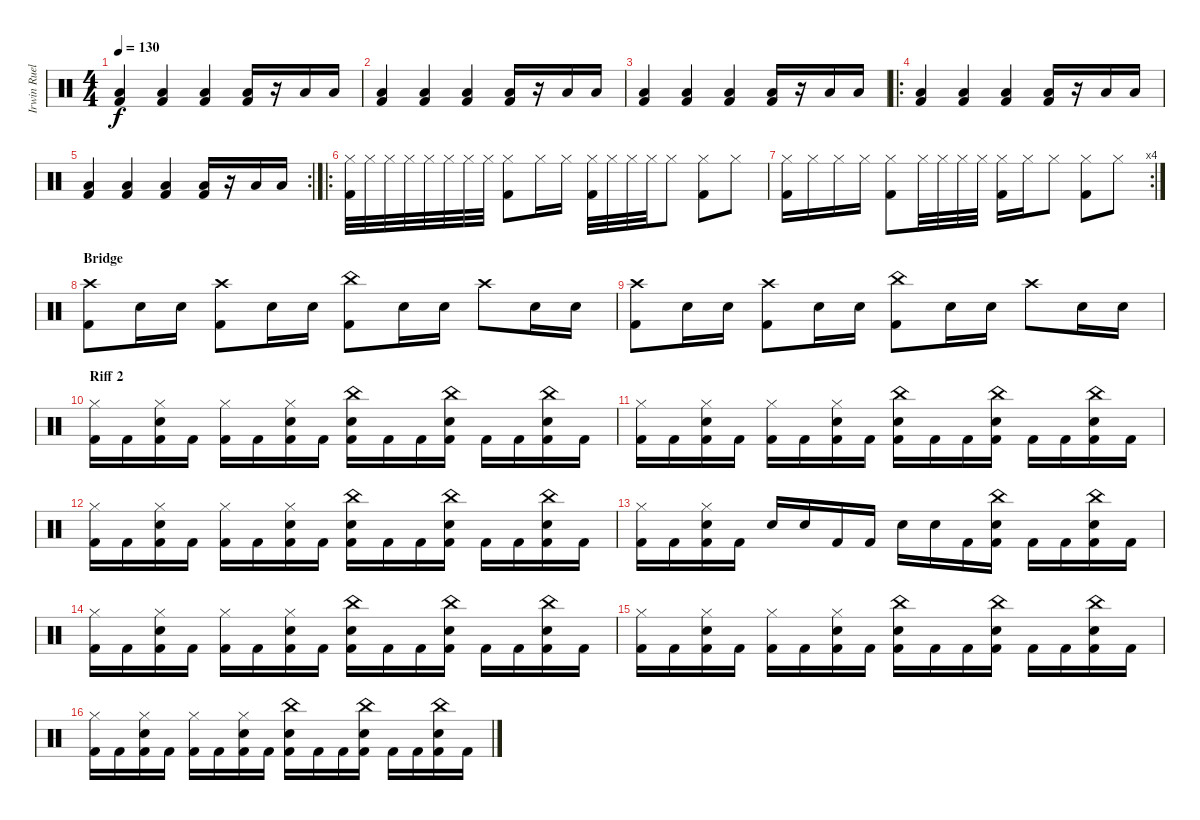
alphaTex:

\track ("Irwin Ruelas (Drums)" "Irwin Ruel") {instrument percussion}
\staff {score}
\articulation defaults
\ts (4 4)
\tempo 130
\clef neutral
\ks c
("Low Floor Tom (hit)" "Kick (hit) 2").4{dy f} ("Low Floor Tom (hit)" "Kick (hit) 2").4 ("Low Floor Tom (hit)" "Kick (hit) 2").4 ("Low Floor Tom (hit)" "Kick (hit) 2").16 r.16 "Low Tom (hit)".16 "Low Tom (hit)".16 |
("Low Floor Tom (hit)" "Kick (hit) 2").4 ("Low Floor Tom (hit)" "Kick (hit) 2").4 ("Low Floor Tom (hit)" "Kick (hit) 2").4 ("Low Floor Tom (hit)" "Kick (hit) 2").16 r.16 "Low Tom (hit)".16 "Low Tom (hit)".16 |
("Low Floor Tom (hit)" "Kick (hit) 2").4 ("Low Floor Tom (hit)" "Kick (hit) 2").4 ("Low Floor Tom (hit)" "Kick (hit) 2").4 ("Low Floor Tom (hit)" "Kick (hit) 2").16 r.16 "Low Tom (hit)".16 "Low Tom (hit)".16 |
\ro
("Low Floor Tom (hit)" "Kick (hit) 2").4 ("Low Floor Tom (hit)" "Kick (hit) 2").4 ("Low Floor Tom (hit)" "Kick (hit) 2").4 ("Low Floor Tom (hit)" "Kick (hit) 2").16 r.16 "Low Tom (hit)".16 "Low Tom (hit)".16 |
\rc 2
("Low Floor Tom (hit)" "Kick (hit) 2").4 ("Low Floor Tom (hit)" "Kick (hit) 2").4 ("Low Floor Tom (hit)" "Kick (hit) 2").4 ("Low Floor Tom (hit)" "Kick (hit) 2").16 r.16 "Low Tom (hit)".16 "Low Tom (hit)".16 |
\ro
("Hi-Hat (closed)" "Kick (hit) 2").32 "Hi-Hat (closed)".32 "Hi-Hat (closed)".32 "Hi-Hat (closed)".32 "Hi-Hat (closed)".32 "Hi-Hat (closed)".32 "Hi-Hat (closed)".32 "Hi-Hat (closed)".32 ("Hi-Hat (closed)" "Kick (hit) 2").8 "Hi-Hat (closed)".16 "Hi-Hat (closed)".16 ("Hi-Hat (closed)" "Kick (hit) 2").32 "Hi-Hat (closed)".32 "Hi-Hat (closed)".32 "Hi-Hat (closed)".32 "Hi-Hat (closed)".8 ("Hi-Hat (closed)" "Kick (hit) 2").8 "Hi-Hat (closed)".8 |
\rc 4
("Hi-Hat (closed)" "Kick (hit) 2").16 "Hi-Hat (closed)".16 "Hi-Hat (closed)".16 "Hi-Hat (closed)".16 ("Hi-Hat (closed)" "Kick (hit) 2").8 "Hi-Hat (closed)".32 "Hi-Hat (closed)".32 "Hi-Hat (closed)".32 "Hi-Hat (closed)".32 ("Hi-Hat (closed)" "Kick (hit) 2").16 "Hi-Hat (closed)".16 "Hi-Hat (closed)".8 ("Hi-Hat (closed)" "Kick (hit) 2").8 "Hi-Hat (closed)".8 |
\section ("" "Bridge")
("Crash high (hit)" "Kick (hit) 2").8 "Snare (hit) 2".16 "Snare (hit) 2".16 ("Crash high (hit)" "Kick (hit) 2").8 "Snare (hit) 2".16 "Snare (hit) 2".16 ("China (hit)" "Kick (hit) 2").8 "Snare (hit) 2".16 "Snare (hit) 2".16 "Crash high (hit)".8 "Snare (hit) 2".16 "Snare (hit) 2".16 |
("Crash high (hit)" "Kick (hit) 2").8 "Snare (hit) 2".16 "Snare (hit) 2".16 ("Crash high (hit)" "Kick (hit) 2").8 "Snare (hit) 2".16 "Snare (hit) 2".16 ("China (hit)" "Kick (hit) 2").8 "Snare (hit) 2".16 "Snare (hit) 2".16 "Crash high (hit)".8 "Snare (hit) 2".16 "Snare (hit) 2".16 |
\section ("" "Riff 2")
("Hi-Hat (closed)" "Kick (hit) 2").16 "Kick (hit) 2".16 ("Hi-Hat (closed)" "Snare (hit) 2" "Kick (hit) 2").16 "Kick (hit) 2".16 ("Hi-Hat (closed)" "Kick (hit) 2").16 "Kick (hit) 2".16 ("Hi-Hat (closed)" "Snare (hit) 2" "Kick (hit) 2").16 "Kick (hit) 2".16 ("China (hit)" "Snare (hit) 2" "Kick (hit) 2").16 "Kick (hit) 2".16 "Kick (hit) 2".16 ("China (hit)" "Snare (hit) 2" "Kick (hit) 2").16 "Kick (hit) 2".16 "Kick (hit) 2".16 ("China (hit)" "Snare (hit) 2" "Kick (hit) 2").16 "Kick (hit) 2".16 |
("Hi-Hat (closed)" "Kick (hit) 2").16 "Kick (hit) 2".16 ("Hi-Hat (closed)" "Snare (hit) 2" "Kick (hit) 2").16 "Kick (hit) 2".16 ("Hi-Hat (closed)" "Kick (hit) 2").16 "Kick (hit) 2".16 ("Hi-Hat (closed)" "Snare (hit) 2" "Kick (hit) 2").16 "Kick (hit) 2".16 ("China (hit)" "Snare (hit) 2" "Kick (hit) 2").16 "Kick (hit) 2".16 "Kick (hit) 2".16 ("China (hit)" "Snare (hit) 2" "Kick (hit) 2").16 "Kick (hit) 2".16 "Kick (hit) 2".16 ("China (hit)" "Snare (hit) 2" "Kick (hit) 2").16 "Kick (hit) 2".16 |
("Hi-Hat (closed)" "Kick (hit) 2").16 "Kick (hit) 2".16 ("Hi-Hat (closed)" "Snare (hit) 2" "Kick (hit) 2").16 "Kick (hit) 2".16 ("Hi-Hat (closed)" "Kick (hit) 2").16 "Kick (hit) 2".16 ("Hi-Hat (closed)" "Snare (hit) 2" "Kick (hit) 2").16 "Kick (hit) 2".16 ("China (hit)" "Snare (hit) 2" "Kick (hit) 2").16 "Kick (hit) 2".16 "Kick (hit) 2".16 ("China (hit)" "Snare (hit) 2" "Kick (hit) 2").16 "Kick (hit) 2".16 "Kick (hit) 2".16 ("China (hit)" "Snare (hit) 2" "Kick (hit) 2").16 "Kick (hit) 2".16 |
("Hi-Hat (closed)" "Kick (hit) 2").16 "Kick (hit) 2".16 ("Hi-Hat (closed)" "Snare (hit) 2" "Kick (hit) 2").16 "Kick (hit) 2".16 "Snare (hit) 2".16 "Snare (hit) 2".16 "Kick (hit) 2".16 "Kick (hit) 2".16 "Snare (hit) 2".16 "Snare (hit) 2".16 "Kick (hit) 2".16 ("China (hit)" "Snare (hit) 2" "Kick (hit) 2").16 "Kick (hit) 2".16 "Kick (hit) 2".16 ("China (hit)" "Snare (hit) 2" "Kick (hit) 2").16 "Kick (hit) 2".16 |
("Hi-Hat (closed)" "Kick (hit) 2").16 "Kick (hit) 2".16 ("Hi-Hat (closed)" "Snare (hit) 2" "Kick (hit) 2").16 "Kick (hit) 2".16 ("Hi-Hat (closed)" "Kick (hit) 2").16 "Kick (hit) 2".16 ("Hi-Hat (closed)" "Snare (hit) 2" "Kick (hit) 2").16 "Kick (hit) 2".16 ("China (hit)" "Snare (hit) 2" "Kick (hit) 2").16 "Kick (hit) 2".16 "Kick (hit) 2".16 ("China (hit)" "Snare (hit) 2" "Kick (hit) 2").16 "Kick (hit) 2".16 "Kick (hit) 2".16 ("China (hit)" "Snare (hit) 2" "Kick (hit) 2").16 "Kick (hit) 2".16 |
("Hi-Hat (closed)" "Kick (hit) 2").16 "Kick (hit) 2".16 ("Hi-Hat (closed)" "Snare (hit) 2" "Kick (hit) 2").16 "Kick (hit) 2".16 ("Hi-Hat (closed)" "Kick (hit) 2").16 "Kick (hit) 2".16 ("Hi-Hat (closed)" "Snare (hit) 2" "Kick (hit) 2").16 "Kick (hit) 2".16 ("China (hit)" "Snare (hit) 2" "Kick (hit) 2").16 "Kick (hit) 2".16 "Kick (hit) 2".16 ("China (hit)" "Snare (hit) 2" "Kick (hit) 2").16 "Kick (hit) 2".16 "Kick (hit) 2".16 ("China (hit)" "Snare (hit) 2" "Kick (hit) 2").16 "Kick (hit) 2".16 |
("Hi-Hat (closed)" "Kick (hit) 2").16 "Kick (hit) 2".16 ("Hi-Hat (closed)" "Snare (hit) 2" "Kick (hit) 2").16 "Kick (hit) 2".16 ("Hi-Hat (closed)" "Kick (hit) 2").16 "Kick (hit) 2".16 ("Hi-Hat (closed)" "Snare (hit) 2" "Kick (hit) 2").16 "Kick (hit) 2".16 ("China (hit)" "Snare (hit) 2" "Kick (hit) 2").16 "Kick (hit) 2".16 "Kick (hit) 2".16 ("China (hit)" "Snare (hit) 2" "Kick (hit) 2").16 "Kick (hit) 2".16 "Kick (hit) 2".16 ("China (hit)" "Snare (hit) 2" "Kick (hit) 2").16 "Kick (hit) 2".16
